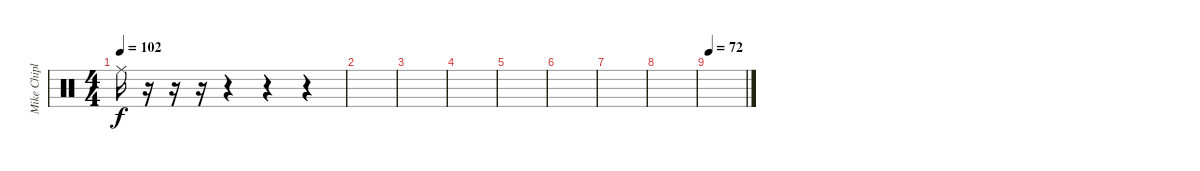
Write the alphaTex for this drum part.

\track ("Mike Chiplin" "Mike Chipl") {instrument percussion}
\staff {score}
\articulation defaults
\ts (4 4)
\tempo 102
\clef neutral
\ks c "Ride (middle)".16{dy f}
r.16 r.16 r.16 r.4 r.4 r.4 |
|
|
|
|
|
|
|
\tempo 72
